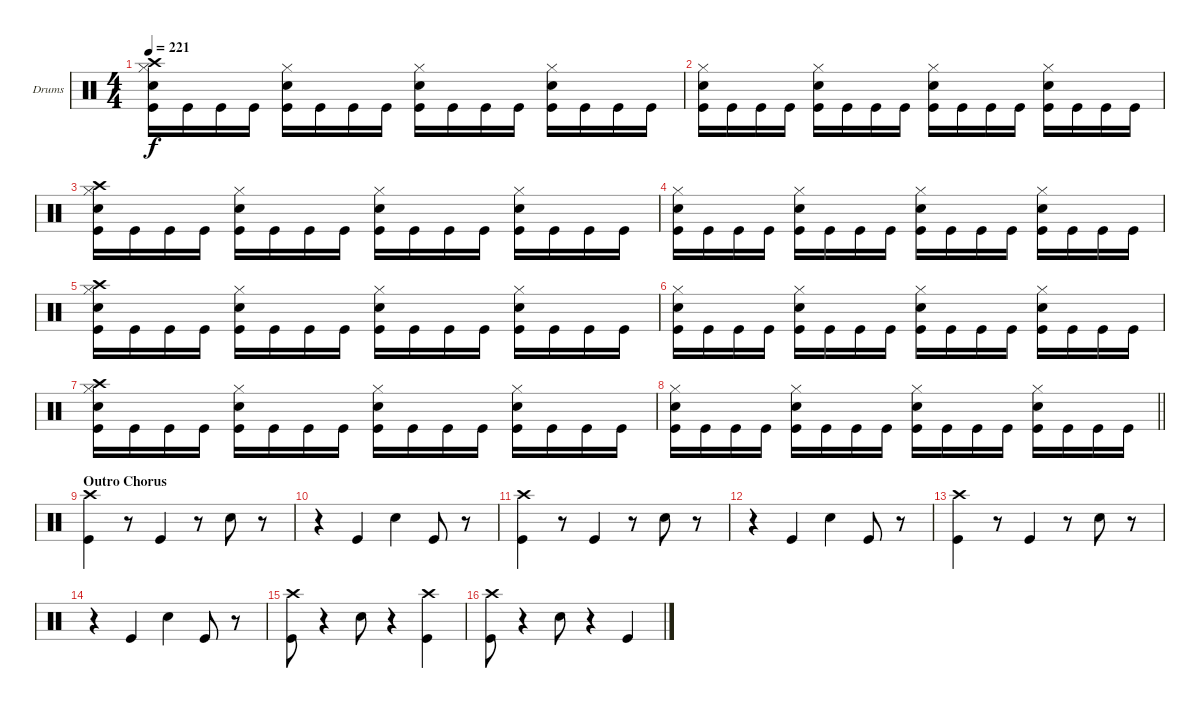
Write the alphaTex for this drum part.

\bracketExtendMode groupsimilarinstruments
\firstSystemTrackNameOrientation horizontal
\otherSystemsTrackNameOrientation horizontal
\track ("Drumkit" "Drums") {instrument percussion}
\staff {score}
\articulation defaults
\ts (4 4)
\tempo 221
\clef neutral
\ks c
("Crash high (hit)" "Hi-Hat (closed)" "Snare (hit) 2" "Kick (hit)").16{dy f} "Kick (hit)".16 "Kick (hit)".16 "Kick (hit)".16 ("Hi-Hat (closed)" "Snare (hit) 2" "Kick (hit)").16 "Kick (hit)".16 "Kick (hit)".16 "Kick (hit)".16 ("Hi-Hat (closed)" "Snare (hit) 2" "Kick (hit)").16 "Kick (hit)".16 "Kick (hit)".16 "Kick (hit)".16 ("Hi-Hat (closed)" "Snare (hit) 2" "Kick (hit)").16 "Kick (hit)".16 "Kick (hit)".16 "Kick (hit)".16 |
("Hi-Hat (closed)" "Snare (hit) 2" "Kick (hit)").16 "Kick (hit)".16 "Kick (hit)".16 "Kick (hit)".16 ("Hi-Hat (closed)" "Snare (hit) 2" "Kick (hit)").16 "Kick (hit)".16 "Kick (hit)".16 "Kick (hit)".16 ("Hi-Hat (closed)" "Snare (hit) 2" "Kick (hit)").16 "Kick (hit)".16 "Kick (hit)".16 "Kick (hit)".16 ("Hi-Hat (closed)" "Snare (hit) 2" "Kick (hit)").16 "Kick (hit)".16 "Kick (hit)".16 "Kick (hit)".16 |
("Crash high (hit)" "Hi-Hat (closed)" "Snare (hit) 2" "Kick (hit)").16 "Kick (hit)".16 "Kick (hit)".16 "Kick (hit)".16 ("Hi-Hat (closed)" "Snare (hit) 2" "Kick (hit)").16 "Kick (hit)".16 "Kick (hit)".16 "Kick (hit)".16 ("Hi-Hat (closed)" "Snare (hit) 2" "Kick (hit)").16 "Kick (hit)".16 "Kick (hit)".16 "Kick (hit)".16 ("Hi-Hat (closed)" "Snare (hit) 2" "Kick (hit)").16 "Kick (hit)".16 "Kick (hit)".16 "Kick (hit)".16 |
("Hi-Hat (closed)" "Snare (hit) 2" "Kick (hit)").16 "Kick (hit)".16 "Kick (hit)".16 "Kick (hit)".16 ("Hi-Hat (closed)" "Snare (hit) 2" "Kick (hit)").16 "Kick (hit)".16 "Kick (hit)".16 "Kick (hit)".16 ("Hi-Hat (closed)" "Snare (hit) 2" "Kick (hit)").16 "Kick (hit)".16 "Kick (hit)".16 "Kick (hit)".16 ("Hi-Hat (closed)" "Snare (hit) 2" "Kick (hit)").16 "Kick (hit)".16 "Kick (hit)".16 "Kick (hit)".16 |
("Crash high (hit)" "Hi-Hat (closed)" "Snare (hit) 2" "Kick (hit)").16 "Kick (hit)".16 "Kick (hit)".16 "Kick (hit)".16 ("Hi-Hat (closed)" "Snare (hit) 2" "Kick (hit)").16 "Kick (hit)".16 "Kick (hit)".16 "Kick (hit)".16 ("Hi-Hat (closed)" "Snare (hit) 2" "Kick (hit)").16 "Kick (hit)".16 "Kick (hit)".16 "Kick (hit)".16 ("Hi-Hat (closed)" "Snare (hit) 2" "Kick (hit)").16 "Kick (hit)".16 "Kick (hit)".16 "Kick (hit)".16 |
("Hi-Hat (closed)" "Snare (hit) 2" "Kick (hit)").16 "Kick (hit)".16 "Kick (hit)".16 "Kick (hit)".16 ("Hi-Hat (closed)" "Snare (hit) 2" "Kick (hit)").16 "Kick (hit)".16 "Kick (hit)".16 "Kick (hit)".16 ("Hi-Hat (closed)" "Snare (hit) 2" "Kick (hit)").16 "Kick (hit)".16 "Kick (hit)".16 "Kick (hit)".16 ("Hi-Hat (closed)" "Snare (hit) 2" "Kick (hit)").16 "Kick (hit)".16 "Kick (hit)".16 "Kick (hit)".16 |
("Crash high (hit)" "Hi-Hat (closed)" "Snare (hit) 2" "Kick (hit)").16 "Kick (hit)".16 "Kick (hit)".16 "Kick (hit)".16 ("Hi-Hat (closed)" "Snare (hit) 2" "Kick (hit)").16 "Kick (hit)".16 "Kick (hit)".16 "Kick (hit)".16 ("Hi-Hat (closed)" "Snare (hit) 2" "Kick (hit)").16 "Kick (hit)".16 "Kick (hit)".16 "Kick (hit)".16 ("Hi-Hat (closed)" "Snare (hit) 2" "Kick (hit)").16 "Kick (hit)".16 "Kick (hit)".16 "Kick (hit)".16 |
\barLineRight lightlight
("Hi-Hat (closed)" "Snare (hit) 2" "Kick (hit)").16 "Kick (hit)".16 "Kick (hit)".16 "Kick (hit)".16 ("Hi-Hat (closed)" "Snare (hit) 2" "Kick (hit)").16 "Kick (hit)".16 "Kick (hit)".16 "Kick (hit)".16 ("Hi-Hat (closed)" "Snare (hit) 2" "Kick (hit)").16 "Kick (hit)".16 "Kick (hit)".16 "Kick (hit)".16 ("Hi-Hat (closed)" "Snare (hit) 2" "Kick (hit)").16 "Kick (hit)".16 "Kick (hit)".16 "Kick (hit)".16 |
\section ("" "Outro Chorus")
("Crash high (hit)" "Kick (hit)").4 r.8 "Kick (hit)".4 r.8 "Snare (hit) 2".8 r.8 |
r.4 "Kick (hit)".4 "Snare (hit) 2".4 "Kick (hit)".8 r.8 |
("Crash high (hit)" "Kick (hit)").4 r.8 "Kick (hit)".4 r.8 "Snare (hit) 2".8 r.8 |
r.4 "Kick (hit)".4 "Snare (hit) 2".4 "Kick (hit)".8 r.8 |
("Crash high (hit)" "Kick (hit)").4 r.8 "Kick (hit)".4 r.8 "Snare (hit) 2".8 r.8 |
r.4 "Kick (hit)".4 "Snare (hit) 2".4 "Kick (hit)".8 r.8 |
("Crash high (hit)" "Kick (hit)").8 r.4 "Snare (hit) 2".8 r.4 ("Crash high (hit)" "Kick (hit)").4 |
("Crash high (hit)" "Kick (hit)").8 r.4 "Snare (hit) 2".8 r.4 "Kick (hit)".4
